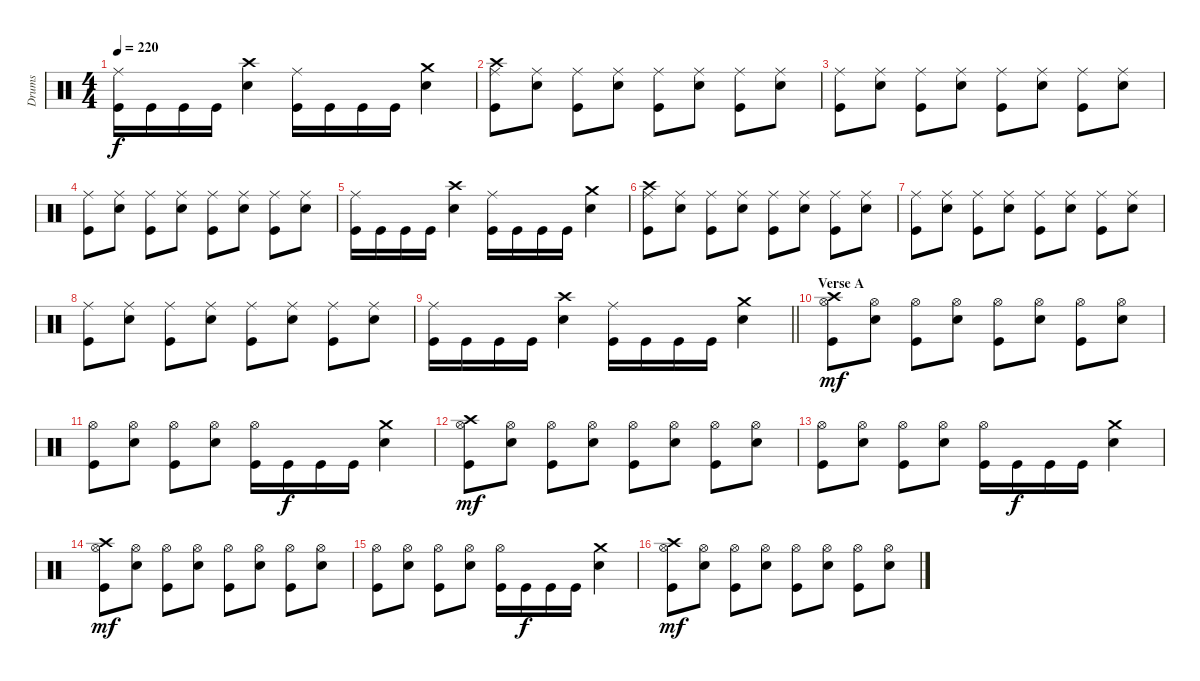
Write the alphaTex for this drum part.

\track ("Drums" "Drums") {instrument percussion}
\staff {score}
\articulation defaults
\ts (4 4)
\tempo 220
\clef neutral
\ks c
("Ride (middle)" "Kick (hit)").16{dy f} "Kick (hit)".16 "Kick (hit)".16 "Kick (hit)".16 ("Crash high (hit)" "Electric Snare (hit)").4 ("Ride (middle)" "Kick (hit)").16 "Kick (hit)".16 "Kick (hit)".16 "Kick (hit)".16 ("Crash medium (hit)" "Electric Snare (hit)").4 |
("Crash high (hit)" "Ride (middle)" "Kick (hit)").8 ("Ride (middle)" "Electric Snare (hit)").8 ("Ride (middle)" "Kick (hit)").8 ("Ride (middle)" "Electric Snare (hit)").8 ("Ride (middle)" "Kick (hit)").8 ("Ride (middle)" "Electric Snare (hit)").8 ("Ride (middle)" "Kick (hit)").8 ("Ride (middle)" "Electric Snare (hit)").8 |
("Ride (middle)" "Kick (hit)").8 ("Ride (middle)" "Electric Snare (hit)").8 ("Ride (middle)" "Kick (hit)").8 ("Ride (middle)" "Electric Snare (hit)").8 ("Ride (middle)" "Kick (hit)").8 ("Ride (middle)" "Electric Snare (hit)").8 ("Ride (middle)" "Kick (hit)").8 ("Ride (middle)" "Electric Snare (hit)").8 |
("Ride (middle)" "Kick (hit)").8 ("Ride (middle)" "Electric Snare (hit)").8 ("Ride (middle)" "Kick (hit)").8 ("Ride (middle)" "Electric Snare (hit)").8 ("Ride (middle)" "Kick (hit)").8 ("Ride (middle)" "Electric Snare (hit)").8 ("Ride (middle)" "Kick (hit)").8 ("Ride (middle)" "Electric Snare (hit)").8 |
("Ride (middle)" "Kick (hit)").16 "Kick (hit)".16 "Kick (hit)".16 "Kick (hit)".16 ("Crash high (hit)" "Electric Snare (hit)").4 ("Ride (middle)" "Kick (hit)").16 "Kick (hit)".16 "Kick (hit)".16 "Kick (hit)".16 ("Crash medium (hit)" "Electric Snare (hit)").4 |
("Crash high (hit)" "Ride (middle)" "Kick (hit)").8 ("Ride (middle)" "Electric Snare (hit)").8 ("Ride (middle)" "Kick (hit)").8 ("Ride (middle)" "Electric Snare (hit)").8 ("Ride (middle)" "Kick (hit)").8 ("Ride (middle)" "Electric Snare (hit)").8 ("Ride (middle)" "Kick (hit)").8 ("Ride (middle)" "Electric Snare (hit)").8 |
("Ride (middle)" "Kick (hit)").8 ("Ride (middle)" "Electric Snare (hit)").8 ("Ride (middle)" "Kick (hit)").8 ("Ride (middle)" "Electric Snare (hit)").8 ("Ride (middle)" "Kick (hit)").8 ("Ride (middle)" "Electric Snare (hit)").8 ("Ride (middle)" "Kick (hit)").8 ("Ride (middle)" "Electric Snare (hit)").8 |
("Ride (middle)" "Kick (hit)").8 ("Ride (middle)" "Electric Snare (hit)").8 ("Ride (middle)" "Kick (hit)").8 ("Ride (middle)" "Electric Snare (hit)").8 ("Ride (middle)" "Kick (hit)").8 ("Ride (middle)" "Electric Snare (hit)").8 ("Ride (middle)" "Kick (hit)").8 ("Ride (middle)" "Electric Snare (hit)").8 |
\barLineRight lightlight
("Ride (middle)" "Kick (hit)").16 "Kick (hit)".16 "Kick (hit)".16 "Kick (hit)".16 ("Crash high (hit)" "Electric Snare (hit)").4 ("Ride (middle)" "Kick (hit)").16 "Kick (hit)".16 "Kick (hit)".16 "Kick (hit)".16 ("Crash medium (hit)" "Electric Snare (hit)").4 |
\section ("" "Verse A")
("Crash high (hit)" "Hi-Hat (open)" "Kick (hit)").8{dy mf} ("Hi-Hat (open)" "Electric Snare (hit)").8 ("Hi-Hat (open)" "Kick (hit)").8 ("Hi-Hat (open)" "Electric Snare (hit)").8 ("Hi-Hat (open)" "Kick (hit)").8 ("Hi-Hat (open)" "Electric Snare (hit)").8 ("Hi-Hat (open)" "Kick (hit)").8 ("Hi-Hat (open)" "Electric Snare (hit)").8 |
("Hi-Hat (open)" "Kick (hit)").8 ("Hi-Hat (open)" "Electric Snare (hit)").8 ("Hi-Hat (open)" "Kick (hit)").8 ("Hi-Hat (open)" "Electric Snare (hit)").8 ("Hi-Hat (open)" "Kick (hit)").16 "Kick (hit)".16{dy f} "Kick (hit)".16 "Kick (hit)".16 ("Crash medium (hit)" "Electric Snare (hit)").4 |
("Crash high (hit)" "Hi-Hat (open)" "Kick (hit)").8{dy mf} ("Hi-Hat (open)" "Electric Snare (hit)").8 ("Hi-Hat (open)" "Kick (hit)").8 ("Hi-Hat (open)" "Electric Snare (hit)").8 ("Hi-Hat (open)" "Kick (hit)").8 ("Hi-Hat (open)" "Electric Snare (hit)").8 ("Hi-Hat (open)" "Kick (hit)").8 ("Hi-Hat (open)" "Electric Snare (hit)").8 |
("Hi-Hat (open)" "Kick (hit)").8 ("Hi-Hat (open)" "Electric Snare (hit)").8 ("Hi-Hat (open)" "Kick (hit)").8 ("Hi-Hat (open)" "Electric Snare (hit)").8 ("Hi-Hat (open)" "Kick (hit)").16 "Kick (hit)".16{dy f} "Kick (hit)".16 "Kick (hit)".16 ("Crash medium (hit)" "Electric Snare (hit)").4 |
("Crash high (hit)" "Hi-Hat (open)" "Kick (hit)").8{dy mf} ("Hi-Hat (open)" "Electric Snare (hit)").8 ("Hi-Hat (open)" "Kick (hit)").8 ("Hi-Hat (open)" "Electric Snare (hit)").8 ("Hi-Hat (open)" "Kick (hit)").8 ("Hi-Hat (open)" "Electric Snare (hit)").8 ("Hi-Hat (open)" "Kick (hit)").8 ("Hi-Hat (open)" "Electric Snare (hit)").8 |
("Hi-Hat (open)" "Kick (hit)").8 ("Hi-Hat (open)" "Electric Snare (hit)").8 ("Hi-Hat (open)" "Kick (hit)").8 ("Hi-Hat (open)" "Electric Snare (hit)").8 ("Hi-Hat (open)" "Kick (hit)").16 "Kick (hit)".16{dy f} "Kick (hit)".16 "Kick (hit)".16 ("Crash medium (hit)" "Electric Snare (hit)").4 |
("Crash high (hit)" "Hi-Hat (open)" "Kick (hit)").8{dy mf} ("Hi-Hat (open)" "Electric Snare (hit)").8 ("Hi-Hat (open)" "Kick (hit)").8 ("Hi-Hat (open)" "Electric Snare (hit)").8 ("Hi-Hat (open)" "Kick (hit)").8 ("Hi-Hat (open)" "Electric Snare (hit)").8 ("Hi-Hat (open)" "Kick (hit)").8 ("Hi-Hat (open)" "Electric Snare (hit)").8
